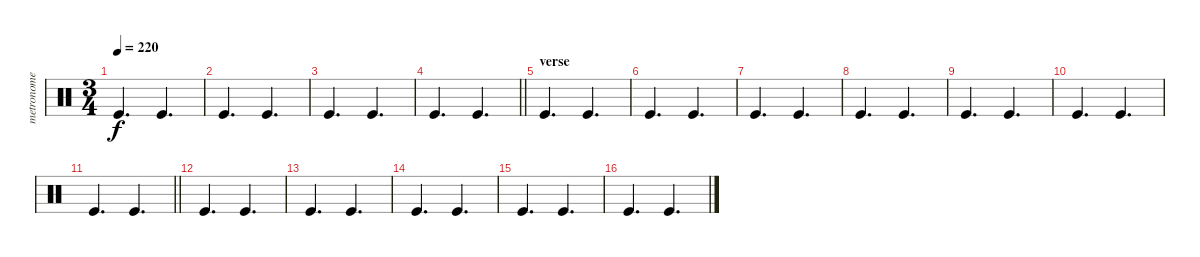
\track ("metronome" "metronome") {instrument percussion}
\staff {score}
\articulation defaults
\ts (3 4)
\tempo 220
\clef neutral
\ks c "Kick (hit)".4{d dy f} "Kick (hit)".4{d}
|
"Kick (hit)".4{d} "Kick (hit)".4{d} |
"Kick (hit)".4{d} "Kick (hit)".4{d} |
\barLineRight lightlight "Kick (hit)".4{d} "Kick (hit)".4{d}
|
\section ("" "verse")
"Kick (hit)".4{d} "Kick (hit)".4{d} |
"Kick (hit)".4{d} "Kick (hit)".4{d} |
"Kick (hit)".4{d} "Kick (hit)".4{d} |
"Kick (hit)".4{d} "Kick (hit)".4{d} |
"Kick (hit)".4{d} "Kick (hit)".4{d} |
"Kick (hit)".4{d} "Kick (hit)".4{d} |
\barLineRight lightlight "Kick (hit)".4{d} "Kick (hit)".4{d}
|
"Kick (hit)".4{d} "Kick (hit)".4{d} |
"Kick (hit)".4{d} "Kick (hit)".4{d} |
"Kick (hit)".4{d} "Kick (hit)".4{d} |
"Kick (hit)".4{d} "Kick (hit)".4{d} |
"Kick (hit)".4{d} "Kick (hit)".4{d}
